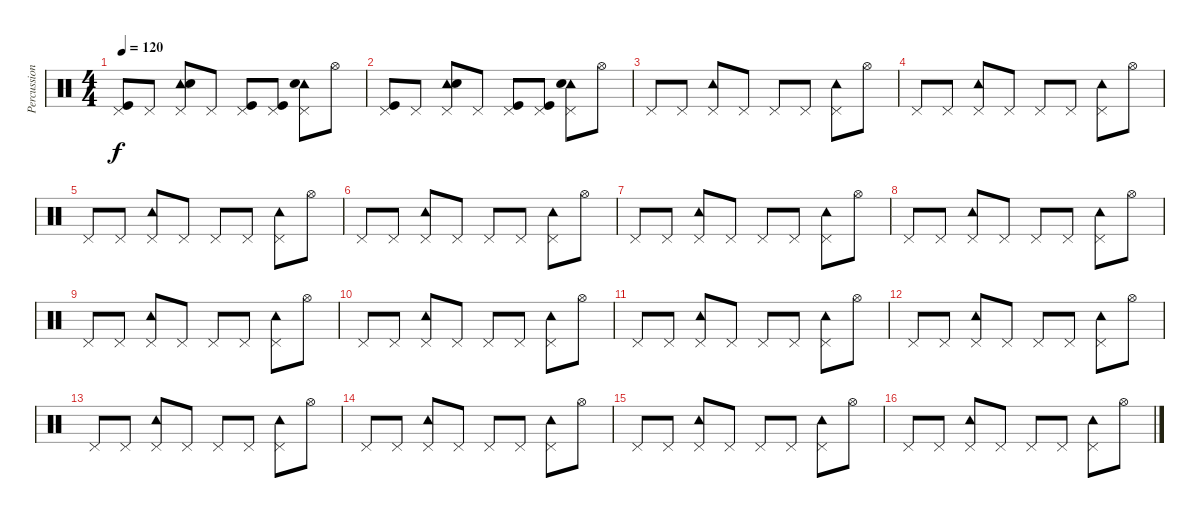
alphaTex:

\track ("Percussioni" "Percussion") {instrument percussion}
\staff {score}
\articulation defaults
\ts (4 4)
\tempo 120
\clef neutral
\ks c
("Pedal Hi-Hat (hit)" "Kick (hit)").8{dy f} "Pedal Hi-Hat (hit)".8 ("Pedal Hi-Hat (hit)" "Tambourine (hit)" "Electric Snare (hit)").8 "Pedal Hi-Hat (hit)".8 ("Pedal Hi-Hat (hit)" "Kick (hit)").8 ("Pedal Hi-Hat (hit)" "Kick (hit)").8 ("Pedal Hi-Hat (hit)" "Tambourine (hit)" "Electric Snare (hit)").8 "Hi-Hat (open)".8 |
("Pedal Hi-Hat (hit)" "Kick (hit)").8 "Pedal Hi-Hat (hit)".8 ("Pedal Hi-Hat (hit)" "Tambourine (hit)" "Electric Snare (hit)").8 "Pedal Hi-Hat (hit)".8 ("Pedal Hi-Hat (hit)" "Kick (hit)").8 ("Pedal Hi-Hat (hit)" "Kick (hit)").8 ("Pedal Hi-Hat (hit)" "Tambourine (hit)" "Electric Snare (hit)").8 "Hi-Hat (open)".8 |
"Pedal Hi-Hat (hit)".8 "Pedal Hi-Hat (hit)".8 ("Pedal Hi-Hat (hit)" "Tambourine (hit)").8 "Pedal Hi-Hat (hit)".8 "Pedal Hi-Hat (hit)".8 "Pedal Hi-Hat (hit)".8 ("Pedal Hi-Hat (hit)" "Tambourine (hit)").8 "Hi-Hat (open)".8 |
"Pedal Hi-Hat (hit)".8 "Pedal Hi-Hat (hit)".8 ("Pedal Hi-Hat (hit)" "Tambourine (hit)").8 "Pedal Hi-Hat (hit)".8 "Pedal Hi-Hat (hit)".8 "Pedal Hi-Hat (hit)".8 ("Pedal Hi-Hat (hit)" "Tambourine (hit)").8 "Hi-Hat (open)".8 |
"Pedal Hi-Hat (hit)".8 "Pedal Hi-Hat (hit)".8 ("Pedal Hi-Hat (hit)" "Tambourine (hit)").8 "Pedal Hi-Hat (hit)".8 "Pedal Hi-Hat (hit)".8 "Pedal Hi-Hat (hit)".8 ("Pedal Hi-Hat (hit)" "Tambourine (hit)").8 "Hi-Hat (open)".8 |
"Pedal Hi-Hat (hit)".8 "Pedal Hi-Hat (hit)".8 ("Pedal Hi-Hat (hit)" "Tambourine (hit)").8 "Pedal Hi-Hat (hit)".8 "Pedal Hi-Hat (hit)".8 "Pedal Hi-Hat (hit)".8 ("Pedal Hi-Hat (hit)" "Tambourine (hit)").8 "Hi-Hat (open)".8 |
"Pedal Hi-Hat (hit)".8 "Pedal Hi-Hat (hit)".8 ("Pedal Hi-Hat (hit)" "Tambourine (hit)").8 "Pedal Hi-Hat (hit)".8 "Pedal Hi-Hat (hit)".8 "Pedal Hi-Hat (hit)".8 ("Pedal Hi-Hat (hit)" "Tambourine (hit)").8 "Hi-Hat (open)".8 |
"Pedal Hi-Hat (hit)".8 "Pedal Hi-Hat (hit)".8 ("Pedal Hi-Hat (hit)" "Tambourine (hit)").8 "Pedal Hi-Hat (hit)".8 "Pedal Hi-Hat (hit)".8 "Pedal Hi-Hat (hit)".8 ("Pedal Hi-Hat (hit)" "Tambourine (hit)").8 "Hi-Hat (open)".8 |
"Pedal Hi-Hat (hit)".8 "Pedal Hi-Hat (hit)".8 ("Pedal Hi-Hat (hit)" "Tambourine (hit)").8 "Pedal Hi-Hat (hit)".8 "Pedal Hi-Hat (hit)".8 "Pedal Hi-Hat (hit)".8 ("Pedal Hi-Hat (hit)" "Tambourine (hit)").8 "Hi-Hat (open)".8 |
"Pedal Hi-Hat (hit)".8 "Pedal Hi-Hat (hit)".8 ("Pedal Hi-Hat (hit)" "Tambourine (hit)").8 "Pedal Hi-Hat (hit)".8 "Pedal Hi-Hat (hit)".8 "Pedal Hi-Hat (hit)".8 ("Pedal Hi-Hat (hit)" "Tambourine (hit)").8 "Hi-Hat (open)".8 |
"Pedal Hi-Hat (hit)".8 "Pedal Hi-Hat (hit)".8 ("Pedal Hi-Hat (hit)" "Tambourine (hit)").8 "Pedal Hi-Hat (hit)".8 "Pedal Hi-Hat (hit)".8 "Pedal Hi-Hat (hit)".8 ("Pedal Hi-Hat (hit)" "Tambourine (hit)").8 "Hi-Hat (open)".8 |
"Pedal Hi-Hat (hit)".8 "Pedal Hi-Hat (hit)".8 ("Pedal Hi-Hat (hit)" "Tambourine (hit)").8 "Pedal Hi-Hat (hit)".8 "Pedal Hi-Hat (hit)".8 "Pedal Hi-Hat (hit)".8 ("Pedal Hi-Hat (hit)" "Tambourine (hit)").8 "Hi-Hat (open)".8 |
"Pedal Hi-Hat (hit)".8 "Pedal Hi-Hat (hit)".8 ("Pedal Hi-Hat (hit)" "Tambourine (hit)").8 "Pedal Hi-Hat (hit)".8 "Pedal Hi-Hat (hit)".8 "Pedal Hi-Hat (hit)".8 ("Pedal Hi-Hat (hit)" "Tambourine (hit)").8 "Hi-Hat (open)".8 |
"Pedal Hi-Hat (hit)".8 "Pedal Hi-Hat (hit)".8 ("Pedal Hi-Hat (hit)" "Tambourine (hit)").8 "Pedal Hi-Hat (hit)".8 "Pedal Hi-Hat (hit)".8 "Pedal Hi-Hat (hit)".8 ("Pedal Hi-Hat (hit)" "Tambourine (hit)").8 "Hi-Hat (open)".8 |
"Pedal Hi-Hat (hit)".8 "Pedal Hi-Hat (hit)".8 ("Pedal Hi-Hat (hit)" "Tambourine (hit)").8 "Pedal Hi-Hat (hit)".8 "Pedal Hi-Hat (hit)".8 "Pedal Hi-Hat (hit)".8 ("Pedal Hi-Hat (hit)" "Tambourine (hit)").8 "Hi-Hat (open)".8 |
"Pedal Hi-Hat (hit)".8 "Pedal Hi-Hat (hit)".8 ("Pedal Hi-Hat (hit)" "Tambourine (hit)").8 "Pedal Hi-Hat (hit)".8 "Pedal Hi-Hat (hit)".8 "Pedal Hi-Hat (hit)".8 ("Pedal Hi-Hat (hit)" "Tambourine (hit)").8 "Hi-Hat (open)".8
